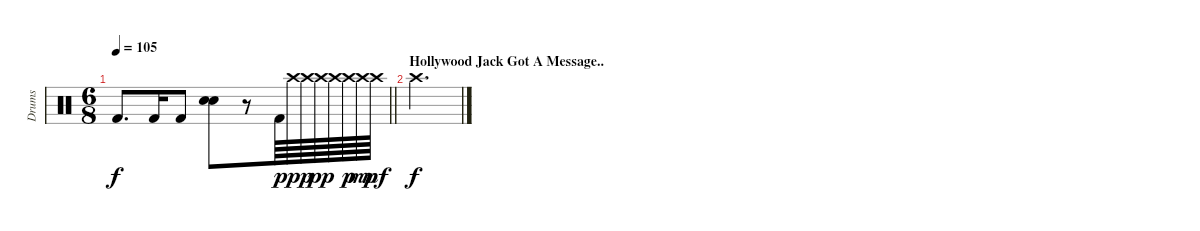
\track ("Drums" "Drums") {instrument percussion}
\staff {score}
\articulation defaults
\ts (6 8)
\tempo 105
\clef neutral
\barLineRight lightlight
\ks c "Kick (hit) 2".8{d dy f} "Kick (hit) 2".16 "Kick (hit) 2".8
("Hand Clap (hit)" "Snare (hit) 2").8 r.8 "Kick (hit) 2".64 "Crash high (hit)".64{dy ppp} "Crash high (hit)".64 "Crash high (hit)".64{dy pp} "Crash high (hit)".64 "Crash high (hit)".64{dy p} "Crash high (hit)".64{dy mp} "Crash high (hit)".64{dy mf} |
\section ("" "Hollywood Jack Got A Message..")
"Crash high (hit)".2{d dy f}
